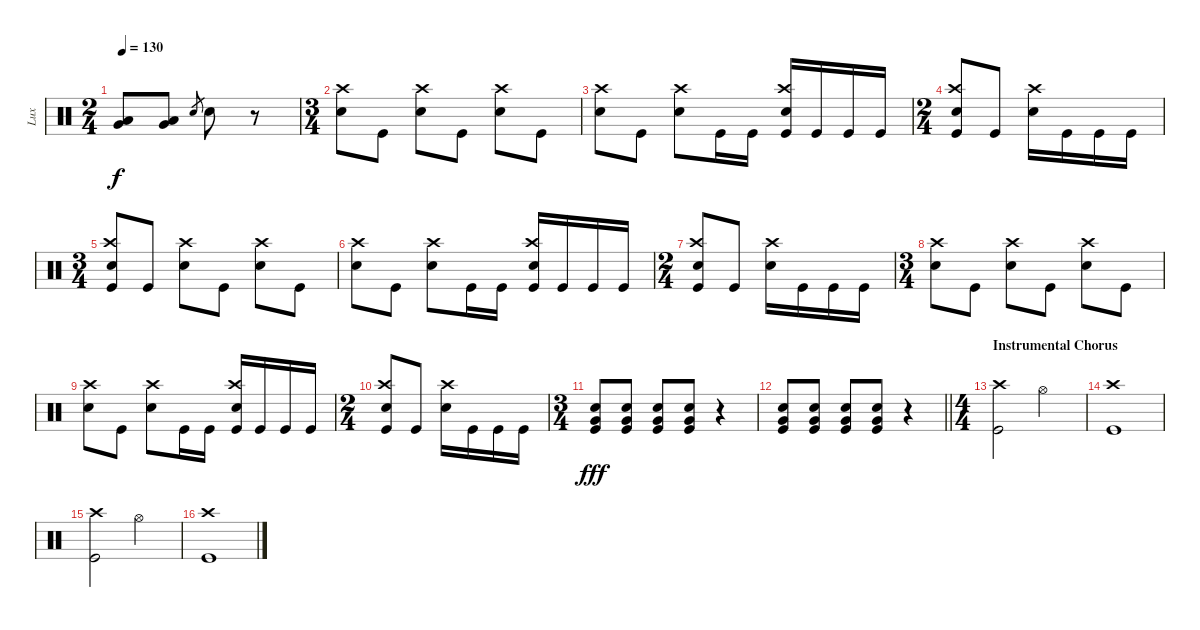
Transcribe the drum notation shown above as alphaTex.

\track ("Lux" "Lux") {instrument percussion}
\staff {score}
\articulation defaults
\ts (2 4)
\tempo 130
\clef neutral
\ks c
("Very Low Tom (hit)" "Low Tom (hit)").8{dy f} ("Very Low Tom (hit)" "Low Floor Tom (hit)").8 "Snare (hit) 2".8{gr} "Snare (hit) 2".8 r.8 |
\ts (3 4)
("Crash high (hit)" "Snare (hit) 2").8 "Kick (hit)".8 ("Crash high (hit)" "Snare (hit) 2").8 "Kick (hit)".8 ("Crash high (hit)" "Snare (hit) 2").8 "Kick (hit)".8 |
("Crash high (hit)" "Snare (hit) 2").8 "Kick (hit)".8 ("Crash high (hit)" "Snare (hit) 2").8 "Kick (hit)".16 "Kick (hit)".16 ("Crash high (hit)" "Snare (hit) 2" "Kick (hit)").16 "Kick (hit)".16 "Kick (hit)".16 "Kick (hit)".16 |
\ts (2 4)
("Crash high (hit)" "Snare (hit) 2" "Kick (hit)").8 "Kick (hit)".8 ("Crash high (hit)" "Snare (hit) 2").16 "Kick (hit)".16 "Kick (hit)".16 "Kick (hit)".16 |
\ts (3 4)
("Crash high (hit)" "Snare (hit) 2" "Kick (hit)").8 "Kick (hit)".8 ("Crash high (hit)" "Snare (hit) 2").8 "Kick (hit)".8 ("Crash high (hit)" "Snare (hit) 2").8 "Kick (hit)".8 |
("Crash high (hit)" "Snare (hit) 2").8 "Kick (hit)".8 ("Crash high (hit)" "Snare (hit) 2").8 "Kick (hit)".16 "Kick (hit)".16 ("Crash high (hit)" "Snare (hit) 2" "Kick (hit)").16 "Kick (hit)".16 "Kick (hit)".16 "Kick (hit)".16 |
\ts (2 4)
("Crash high (hit)" "Snare (hit) 2" "Kick (hit)").8 "Kick (hit)".8 ("Crash high (hit)" "Snare (hit) 2").16 "Kick (hit)".16 "Kick (hit)".16 "Kick (hit)".16 |
\ts (3 4)
("Crash high (hit)" "Snare (hit) 2").8 "Kick (hit)".8 ("Crash high (hit)" "Snare (hit) 2").8 "Kick (hit)".8 ("Crash high (hit)" "Snare (hit) 2").8 "Kick (hit)".8 |
("Crash high (hit)" "Snare (hit) 2").8 "Kick (hit)".8 ("Crash high (hit)" "Snare (hit) 2").8 "Kick (hit)".16 "Kick (hit)".16 ("Crash high (hit)" "Snare (hit) 2" "Kick (hit)").16 "Kick (hit)".16 "Kick (hit)".16 "Kick (hit)".16 |
\ts (2 4)
("Crash high (hit)" "Snare (hit) 2" "Kick (hit)").8 "Kick (hit)".8 ("Crash high (hit)" "Snare (hit) 2").16 "Kick (hit)".16 "Kick (hit)".16 "Kick (hit)".16 |
\ts (3 4)
("Very Low Tom (hit)" "Snare (hit) 2" "Kick (hit)").8{dy fff} ("Very Low Tom (hit)" "Snare (hit) 2" "Kick (hit)").8 ("Very Low Tom (hit)" "Snare (hit) 2" "Kick (hit)").8 ("Very Low Tom (hit)" "Snare (hit) 2" "Kick (hit)").8 r.4 |
\barLineRight lightlight
("Very Low Tom (hit)" "Snare (hit) 2" "Kick (hit)").8 ("Very Low Tom (hit)" "Snare (hit) 2" "Kick (hit)").8 ("Very Low Tom (hit)" "Snare (hit) 2" "Kick (hit)").8 ("Very Low Tom (hit)" "Snare (hit) 2" "Kick (hit)").8 r.4 |
\ts (4 4)
\section ("" "Instrumental Chorus")
("Crash high (hit)" "Kick (hit)").2 "Hi-Hat (open)".2 |
("Crash high (hit)" "Kick (hit)").1 |
("Crash high (hit)" "Kick (hit)").2 "Hi-Hat (open)".2 |
("Crash high (hit)" "Kick (hit)").1
